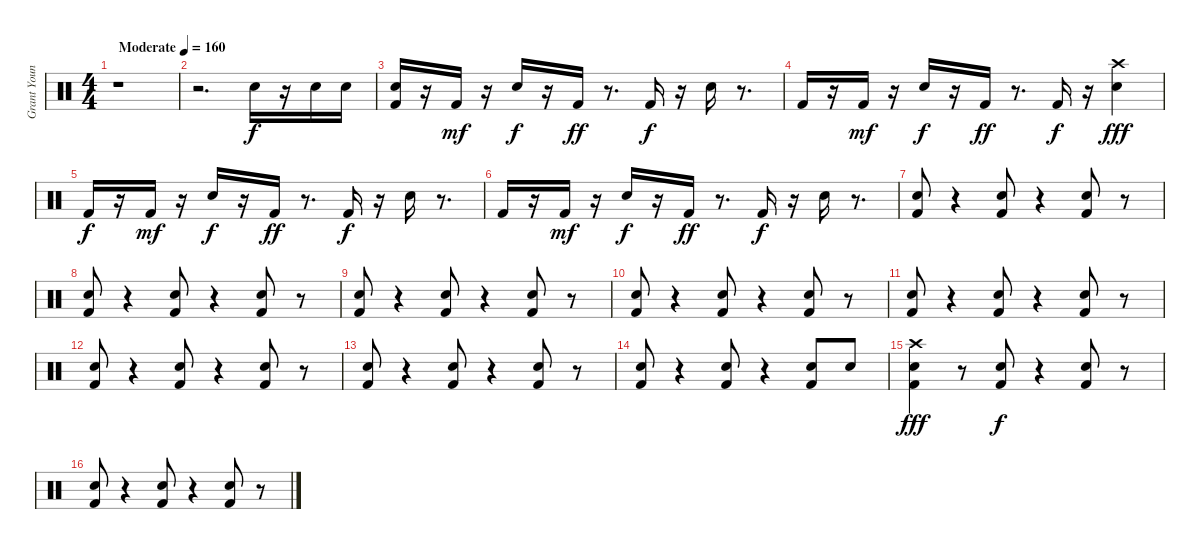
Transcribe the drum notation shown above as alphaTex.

\track ("Grant Young" "Grant Youn") {instrument percussion}
\staff {score}
\articulation defaults
\ts (4 4)
\tempo (160 "Moderate")
\clef neutral
\ks c
r.1{dy f} |
r.2{d} "Snare (hit) 2".16{volume 12} r.16 "Snare (hit) 2".16 "Snare (hit) 2".16 |
("Snare (hit) 2" "Kick (hit) 2").16 r.16 "Kick (hit) 2".16{dy mf} r.16 "Snare (hit) 2".16{dy f} r.16 "Kick (hit) 2".16{dy ff} r.8{d} "Kick (hit) 2".16{dy f} r.16 "Snare (hit) 2".16 r.8{d} |
"Kick (hit) 2".16 r.16 "Kick (hit) 2".16{dy mf} r.16 "Snare (hit) 2".16{dy f} r.16 "Kick (hit) 2".16{dy ff} r.8{d} "Kick (hit) 2".16{dy f} r.16 ("Crash high (hit)" "Snare (hit) 2").4{dy fff} |
"Kick (hit) 2".16{dy f} r.16 "Kick (hit) 2".16{dy mf} r.16 "Snare (hit) 2".16{dy f} r.16 "Kick (hit) 2".16{dy ff} r.8{d} "Kick (hit) 2".16{dy f} r.16 "Snare (hit) 2".16 r.8{d} |
"Kick (hit) 2".16 r.16 "Kick (hit) 2".16{dy mf} r.16 "Snare (hit) 2".16{dy f} r.16 "Kick (hit) 2".16{dy ff} r.8{d} "Kick (hit) 2".16{dy f} r.16 "Snare (hit) 2".16 r.8{d} |
("Kick (hit) 2" "Snare (hit) 2").8 r.4 ("Kick (hit) 2" "Snare (hit) 2").8 r.4 ("Kick (hit) 2" "Snare (hit) 2").8 r.8 |
("Kick (hit) 2" "Snare (hit) 2").8 r.4 ("Kick (hit) 2" "Snare (hit) 2").8 r.4 ("Kick (hit) 2" "Snare (hit) 2").8 r.8 |
("Kick (hit) 2" "Snare (hit) 2").8 r.4 ("Kick (hit) 2" "Snare (hit) 2").8 r.4 ("Kick (hit) 2" "Snare (hit) 2").8 r.8 |
("Kick (hit) 2" "Snare (hit) 2").8 r.4 ("Kick (hit) 2" "Snare (hit) 2").8 r.4 ("Kick (hit) 2" "Snare (hit) 2").8 r.8 |
("Kick (hit) 2" "Snare (hit) 2").8 r.4 ("Kick (hit) 2" "Snare (hit) 2").8 r.4 ("Kick (hit) 2" "Snare (hit) 2").8 r.8 |
("Kick (hit) 2" "Snare (hit) 2").8 r.4 ("Kick (hit) 2" "Snare (hit) 2").8 r.4 ("Kick (hit) 2" "Snare (hit) 2").8 r.8 |
("Kick (hit) 2" "Snare (hit) 2").8 r.4 ("Kick (hit) 2" "Snare (hit) 2").8 r.4 ("Kick (hit) 2" "Snare (hit) 2").8 r.8 |
("Kick (hit) 2" "Snare (hit) 2").8 r.4 ("Kick (hit) 2" "Snare (hit) 2").8 r.4 ("Kick (hit) 2" "Snare (hit) 2").8 "Snare (hit) 2".8 |
("Crash high (hit)" "Kick (hit) 2" "Snare (hit) 2").4{dy fff} r.8 ("Kick (hit) 2" "Snare (hit) 2").8{dy f} r.4 ("Kick (hit) 2" "Snare (hit) 2").8 r.8 |
("Kick (hit) 2" "Snare (hit) 2").8 r.4 ("Kick (hit) 2" "Snare (hit) 2").8 r.4 ("Kick (hit) 2" "Snare (hit) 2").8 r.8
